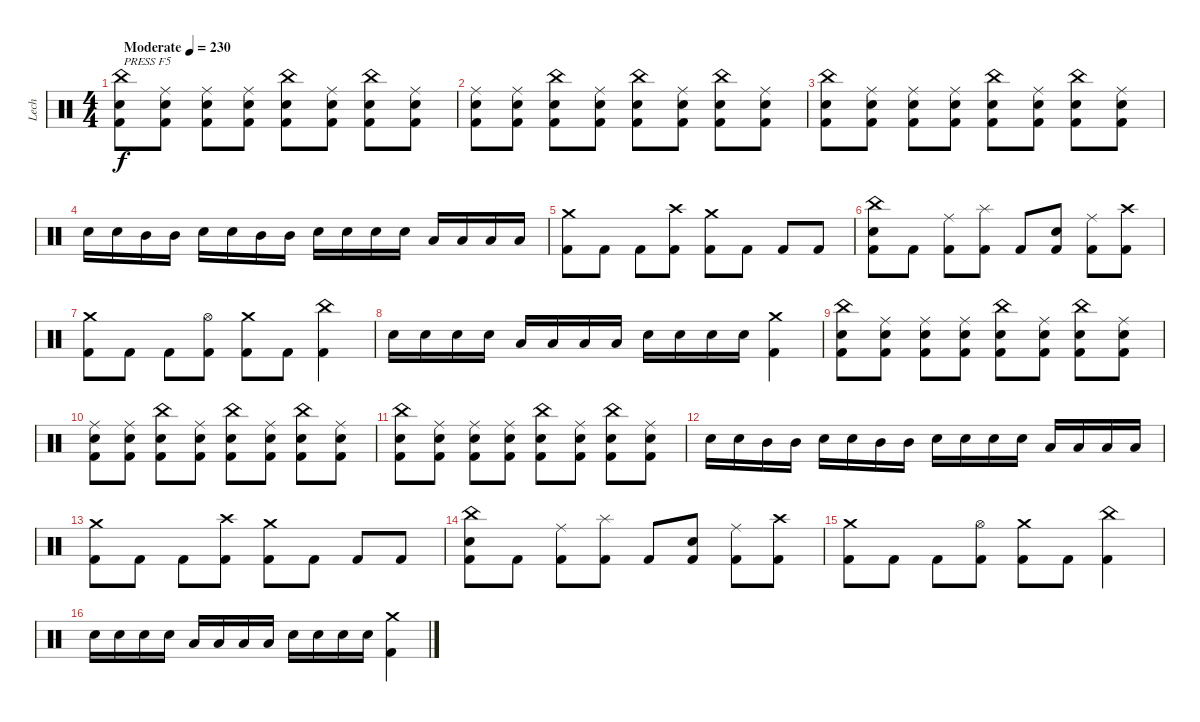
\track ("Lech" "Lech") {instrument percussion}
\staff {score}
\articulation defaults
\ts (4 4)
\tempo (230 "Moderate")
\clef neutral
\ks c
("China (hit)" "Electric Snare (hit)" "Kick (hit) 2").8{txt "PRESS F5" dy f} ("Ride (middle)" "Electric Snare (hit)" "Kick (hit) 2").8 ("Ride (middle)" "Electric Snare (hit)" "Kick (hit) 2").8 ("Ride (middle)" "Electric Snare (hit)" "Kick (hit) 2").8 ("China (hit)" "Electric Snare (hit)" "Kick (hit) 2").8 ("Ride (middle)" "Electric Snare (hit)" "Kick (hit) 2").8 ("China (hit)" "Electric Snare (hit)" "Kick (hit) 2").8 ("Ride (middle)" "Electric Snare (hit)" "Kick (hit) 2").8 |
("Ride (middle)" "Electric Snare (hit)" "Kick (hit) 2").8 ("Ride (middle)" "Electric Snare (hit)" "Kick (hit) 2").8 ("China (hit)" "Electric Snare (hit)" "Kick (hit) 2").8 ("Ride (middle)" "Electric Snare (hit)" "Kick (hit) 2").8 ("China (hit)" "Electric Snare (hit)" "Kick (hit) 2").8 ("Ride (middle)" "Electric Snare (hit)" "Kick (hit) 2").8 ("China (hit)" "Electric Snare (hit)" "Kick (hit) 2").8 ("Ride (middle)" "Electric Snare (hit)" "Kick (hit) 2").8 |
("China (hit)" "Electric Snare (hit)" "Kick (hit) 2").8 ("Ride (middle)" "Electric Snare (hit)" "Kick (hit) 2").8 ("Ride (middle)" "Electric Snare (hit)" "Kick (hit) 2").8 ("Ride (middle)" "Electric Snare (hit)" "Kick (hit) 2").8 ("China (hit)" "Electric Snare (hit)" "Kick (hit) 2").8 ("Ride (middle)" "Electric Snare (hit)" "Kick (hit) 2").8 ("China (hit)" "Electric Snare (hit)" "Kick (hit) 2").8 ("Ride (middle)" "Electric Snare (hit)" "Kick (hit) 2").8 |
"Electric Snare (hit)".16 "Electric Snare (hit)".16 "Mid Tom (hit)".16 "Mid Tom (hit)".16 "Electric Snare (hit)".16 "Electric Snare (hit)".16 "Mid Tom (hit)".16 "Mid Tom (hit)".16 "Electric Snare (hit)".16 "Electric Snare (hit)".16 "Electric Snare (hit)".16 "Electric Snare (hit)".16 "Low Tom (hit)".16 "Low Tom (hit)".16 "Low Tom (hit)".16 "Low Tom (hit)".16 |
("Crash medium (hit)" "Kick (hit) 2").8 "Kick (hit) 2".8 "Kick (hit) 2".8 ("Crash high (hit)" "Kick (hit) 2").8 ("Crash medium (hit)" "Kick (hit) 2").8 "Kick (hit) 2".8 "Kick (hit) 2".8 "Kick (hit) 2".8 |
("China (hit)" "Electric Snare (hit)" "Kick (hit) 2").8 "Kick (hit) 2".8 ("Ride (middle)" "Kick (hit) 2").8 ("Splash (hit)" "Kick (hit) 2").8 "Kick (hit) 2".8 ("Electric Snare (hit)" "Kick (hit) 2").8 ("Ride (middle)" "Kick (hit) 2").8 ("Crash high (hit)" "Kick (hit) 2").8 |
("Crash medium (hit)" "Kick (hit) 2").8 "Kick (hit) 2".8 "Kick (hit) 2".8 ("Hi-Hat (open)" "Kick (hit) 2").8 ("Crash medium (hit)" "Kick (hit) 2").8 "Kick (hit) 2".8 ("China (hit)" "Kick (hit) 2").4 |
"Electric Snare (hit)".16 "Electric Snare (hit)".16 "Electric Snare (hit)".16 "Electric Snare (hit)".16 "Low Tom (hit)".16 "Low Tom (hit)".16 "Low Tom (hit)".16 "Low Tom (hit)".16 "Electric Snare (hit)".16 "Electric Snare (hit)".16 "Electric Snare (hit)".16 "Electric Snare (hit)".16 ("Crash medium (hit)" "Kick (hit) 2").4 |
("China (hit)" "Electric Snare (hit)" "Kick (hit) 2").8 ("Ride (middle)" "Electric Snare (hit)" "Kick (hit) 2").8 ("Ride (middle)" "Electric Snare (hit)" "Kick (hit) 2").8 ("Ride (middle)" "Electric Snare (hit)" "Kick (hit) 2").8 ("China (hit)" "Electric Snare (hit)" "Kick (hit) 2").8 ("Ride (middle)" "Electric Snare (hit)" "Kick (hit) 2").8 ("China (hit)" "Electric Snare (hit)" "Kick (hit) 2").8 ("Ride (middle)" "Electric Snare (hit)" "Kick (hit) 2").8 |
("Ride (middle)" "Electric Snare (hit)" "Kick (hit) 2").8 ("Ride (middle)" "Electric Snare (hit)" "Kick (hit) 2").8 ("China (hit)" "Electric Snare (hit)" "Kick (hit) 2").8 ("Ride (middle)" "Electric Snare (hit)" "Kick (hit) 2").8 ("China (hit)" "Electric Snare (hit)" "Kick (hit) 2").8 ("Ride (middle)" "Electric Snare (hit)" "Kick (hit) 2").8 ("China (hit)" "Electric Snare (hit)" "Kick (hit) 2").8 ("Ride (middle)" "Electric Snare (hit)" "Kick (hit) 2").8 |
("China (hit)" "Electric Snare (hit)" "Kick (hit) 2").8 ("Ride (middle)" "Electric Snare (hit)" "Kick (hit) 2").8 ("Ride (middle)" "Electric Snare (hit)" "Kick (hit) 2").8 ("Ride (middle)" "Electric Snare (hit)" "Kick (hit) 2").8 ("China (hit)" "Electric Snare (hit)" "Kick (hit) 2").8 ("Ride (middle)" "Electric Snare (hit)" "Kick (hit) 2").8 ("China (hit)" "Electric Snare (hit)" "Kick (hit) 2").8 ("Ride (middle)" "Electric Snare (hit)" "Kick (hit) 2").8 |
"Electric Snare (hit)".16 "Electric Snare (hit)".16 "Mid Tom (hit)".16 "Mid Tom (hit)".16 "Electric Snare (hit)".16 "Electric Snare (hit)".16 "Mid Tom (hit)".16 "Mid Tom (hit)".16 "Electric Snare (hit)".16 "Electric Snare (hit)".16 "Electric Snare (hit)".16 "Electric Snare (hit)".16 "Low Tom (hit)".16 "Low Tom (hit)".16 "Low Tom (hit)".16 "Low Tom (hit)".16 |
("Crash medium (hit)" "Kick (hit) 2").8 "Kick (hit) 2".8 "Kick (hit) 2".8 ("Crash high (hit)" "Kick (hit) 2").8 ("Crash medium (hit)" "Kick (hit) 2").8 "Kick (hit) 2".8 "Kick (hit) 2".8 "Kick (hit) 2".8 |
("China (hit)" "Electric Snare (hit)" "Kick (hit) 2").8 "Kick (hit) 2".8 ("Ride (middle)" "Kick (hit) 2").8 ("Splash (hit)" "Kick (hit) 2").8 "Kick (hit) 2".8 ("Electric Snare (hit)" "Kick (hit) 2").8 ("Ride (middle)" "Kick (hit) 2").8 ("Crash high (hit)" "Kick (hit) 2").8 |
("Crash medium (hit)" "Kick (hit) 2").8 "Kick (hit) 2".8 "Kick (hit) 2".8 ("Hi-Hat (open)" "Kick (hit) 2").8 ("Crash medium (hit)" "Kick (hit) 2").8 "Kick (hit) 2".8 ("China (hit)" "Kick (hit) 2").4 |
"Electric Snare (hit)".16 "Electric Snare (hit)".16 "Electric Snare (hit)".16 "Electric Snare (hit)".16 "Low Tom (hit)".16 "Low Tom (hit)".16 "Low Tom (hit)".16 "Low Tom (hit)".16 "Electric Snare (hit)".16 "Electric Snare (hit)".16 "Electric Snare (hit)".16 "Electric Snare (hit)".16 ("Crash medium (hit)" "Kick (hit) 2").4
